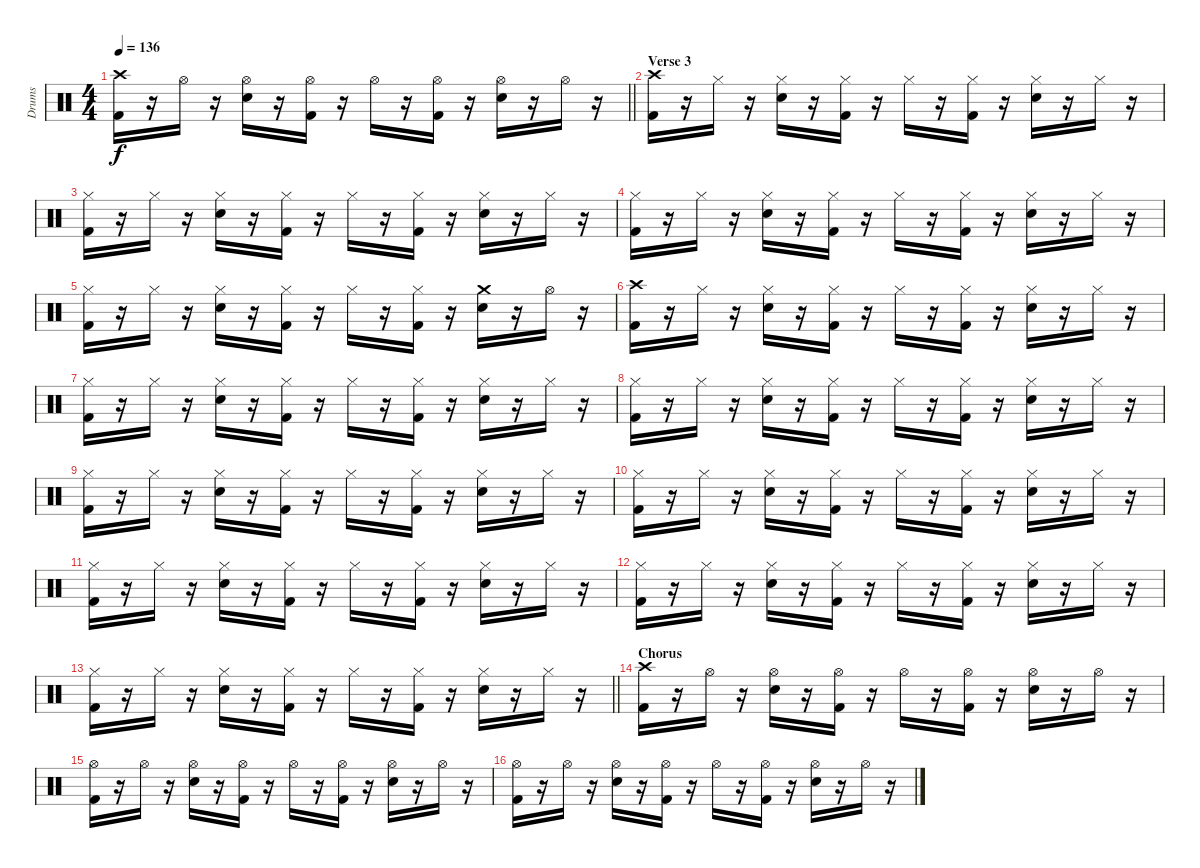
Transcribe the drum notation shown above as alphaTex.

\track ("Drums" "Drums") {instrument percussion}
\staff {score}
\articulation defaults
\ts (4 4)
\tempo 136
\clef neutral
\barLineRight lightlight
\ks c
("Kick (hit) 2" "Crash high (hit)").16{dy f} r.16 "Hi-Hat (open)".16 r.16 ("Electric Snare (hit)" "Hi-Hat (open)").16 r.16 ("Kick (hit) 2" "Hi-Hat (open)").16 r.16 "Hi-Hat (open)".16 r.16 ("Kick (hit) 2" "Hi-Hat (open)").16 r.16 ("Electric Snare (hit)" "Hi-Hat (open)").16 r.16 "Hi-Hat (open)".16 r.16 |
\section ("" "Verse 3")
("Kick (hit) 2" "Crash high (hit)").16 r.16 "Hi-Hat (closed)".16 r.16 ("Electric Snare (hit)" "Hi-Hat (closed)").16 r.16 ("Kick (hit) 2" "Hi-Hat (closed)").16 r.16 "Hi-Hat (closed)".16 r.16 ("Kick (hit) 2" "Hi-Hat (closed)").16 r.16 ("Electric Snare (hit)" "Hi-Hat (closed)").16 r.16 "Hi-Hat (closed)".16 r.16 |
("Kick (hit) 2" "Hi-Hat (closed)").16 r.16 "Hi-Hat (closed)".16 r.16 ("Electric Snare (hit)" "Hi-Hat (closed)").16 r.16 ("Kick (hit) 2" "Hi-Hat (closed)").16 r.16 "Hi-Hat (closed)".16 r.16 ("Kick (hit) 2" "Hi-Hat (closed)").16 r.16 ("Electric Snare (hit)" "Hi-Hat (closed)").16 r.16 "Hi-Hat (closed)".16 r.16 |
("Kick (hit) 2" "Hi-Hat (closed)").16 r.16 "Hi-Hat (closed)".16 r.16 ("Electric Snare (hit)" "Hi-Hat (closed)").16 r.16 ("Kick (hit) 2" "Hi-Hat (closed)").16 r.16 "Hi-Hat (closed)".16 r.16 ("Kick (hit) 2" "Hi-Hat (closed)").16 r.16 ("Electric Snare (hit)" "Hi-Hat (closed)").16 r.16 "Hi-Hat (closed)".16 r.16 |
("Kick (hit) 2" "Hi-Hat (closed)").16 r.16 "Hi-Hat (closed)".16 r.16 ("Electric Snare (hit)" "Hi-Hat (closed)").16 r.16 ("Kick (hit) 2" "Hi-Hat (closed)").16 r.16 "Hi-Hat (closed)".16 r.16 ("Kick (hit) 2" "Hi-Hat (closed)").16 r.16 ("Electric Snare (hit)" "Crash medium (hit)").16 r.16 "Hi-Hat (open)".16 r.16 |
("Kick (hit) 2" "Crash high (hit)").16 r.16 "Hi-Hat (closed)".16 r.16 ("Electric Snare (hit)" "Hi-Hat (closed)").16 r.16 ("Kick (hit) 2" "Hi-Hat (closed)").16 r.16 "Hi-Hat (closed)".16 r.16 ("Kick (hit) 2" "Hi-Hat (closed)").16 r.16 ("Electric Snare (hit)" "Hi-Hat (closed)").16 r.16 "Hi-Hat (closed)".16 r.16 |
("Kick (hit) 2" "Hi-Hat (closed)").16 r.16 "Hi-Hat (closed)".16 r.16 ("Electric Snare (hit)" "Hi-Hat (closed)").16 r.16 ("Kick (hit) 2" "Hi-Hat (closed)").16 r.16 "Hi-Hat (closed)".16 r.16 ("Kick (hit) 2" "Hi-Hat (closed)").16 r.16 ("Electric Snare (hit)" "Hi-Hat (closed)").16 r.16 "Hi-Hat (closed)".16 r.16 |
("Kick (hit) 2" "Hi-Hat (closed)").16 r.16 "Hi-Hat (closed)".16 r.16 ("Electric Snare (hit)" "Hi-Hat (closed)").16 r.16 ("Kick (hit) 2" "Hi-Hat (closed)").16 r.16 "Hi-Hat (closed)".16 r.16 ("Kick (hit) 2" "Hi-Hat (closed)").16 r.16 ("Electric Snare (hit)" "Hi-Hat (closed)").16 r.16 "Hi-Hat (closed)".16 r.16 |
("Kick (hit) 2" "Hi-Hat (closed)").16 r.16 "Hi-Hat (closed)".16 r.16 ("Electric Snare (hit)" "Hi-Hat (closed)").16 r.16 ("Kick (hit) 2" "Hi-Hat (closed)").16 r.16 "Hi-Hat (closed)".16 r.16 ("Kick (hit) 2" "Hi-Hat (closed)").16 r.16 ("Electric Snare (hit)" "Hi-Hat (closed)").16 r.16 "Hi-Hat (closed)".16 r.16 |
("Kick (hit) 2" "Hi-Hat (closed)").16 r.16 "Hi-Hat (closed)".16 r.16 ("Electric Snare (hit)" "Hi-Hat (closed)").16 r.16 ("Kick (hit) 2" "Hi-Hat (closed)").16 r.16 "Hi-Hat (closed)".16 r.16 ("Kick (hit) 2" "Hi-Hat (closed)").16 r.16 ("Electric Snare (hit)" "Hi-Hat (closed)").16 r.16 "Hi-Hat (closed)".16 r.16 |
("Kick (hit) 2" "Hi-Hat (closed)").16 r.16 "Hi-Hat (closed)".16 r.16 ("Electric Snare (hit)" "Hi-Hat (closed)").16 r.16 ("Kick (hit) 2" "Hi-Hat (closed)").16 r.16 "Hi-Hat (closed)".16 r.16 ("Kick (hit) 2" "Hi-Hat (closed)").16 r.16 ("Electric Snare (hit)" "Hi-Hat (closed)").16 r.16 "Hi-Hat (closed)".16 r.16 |
("Kick (hit) 2" "Hi-Hat (closed)").16 r.16 "Hi-Hat (closed)".16 r.16 ("Electric Snare (hit)" "Hi-Hat (closed)").16 r.16 ("Kick (hit) 2" "Hi-Hat (closed)").16 r.16 "Hi-Hat (closed)".16 r.16 ("Kick (hit) 2" "Hi-Hat (closed)").16 r.16 ("Electric Snare (hit)" "Hi-Hat (closed)").16 r.16 "Hi-Hat (closed)".16 r.16 |
\barLineRight lightlight
("Kick (hit) 2" "Hi-Hat (closed)").16 r.16 "Hi-Hat (closed)".16 r.16 ("Electric Snare (hit)" "Hi-Hat (closed)").16 r.16 ("Kick (hit) 2" "Hi-Hat (closed)").16 r.16 "Hi-Hat (closed)".16 r.16 ("Kick (hit) 2" "Hi-Hat (closed)").16 r.16 ("Electric Snare (hit)" "Hi-Hat (closed)").16 r.16 "Hi-Hat (closed)".16 r.16 |
\section ("" "Chorus")
("Kick (hit) 2" "Crash high (hit)").16 r.16 "Hi-Hat (open)".16 r.16 ("Electric Snare (hit)" "Hi-Hat (open)").16 r.16 ("Kick (hit) 2" "Hi-Hat (open)").16 r.16 "Hi-Hat (open)".16 r.16 ("Kick (hit) 2" "Hi-Hat (open)").16 r.16 ("Electric Snare (hit)" "Hi-Hat (open)").16 r.16 "Hi-Hat (open)".16 r.16 |
("Kick (hit) 2" "Hi-Hat (open)").16 r.16 "Hi-Hat (open)".16 r.16 ("Electric Snare (hit)" "Hi-Hat (open)").16 r.16 ("Kick (hit) 2" "Hi-Hat (open)").16 r.16 "Hi-Hat (open)".16 r.16 ("Kick (hit) 2" "Hi-Hat (open)").16 r.16 ("Electric Snare (hit)" "Hi-Hat (open)").16 r.16 "Hi-Hat (open)".16 r.16 |
("Kick (hit) 2" "Hi-Hat (open)").16 r.16 "Hi-Hat (open)".16 r.16 ("Electric Snare (hit)" "Hi-Hat (open)").16 r.16 ("Kick (hit) 2" "Hi-Hat (open)").16 r.16 "Hi-Hat (open)".16 r.16 ("Kick (hit) 2" "Hi-Hat (open)").16 r.16 ("Electric Snare (hit)" "Hi-Hat (open)").16 r.16 "Hi-Hat (open)".16 r.16
